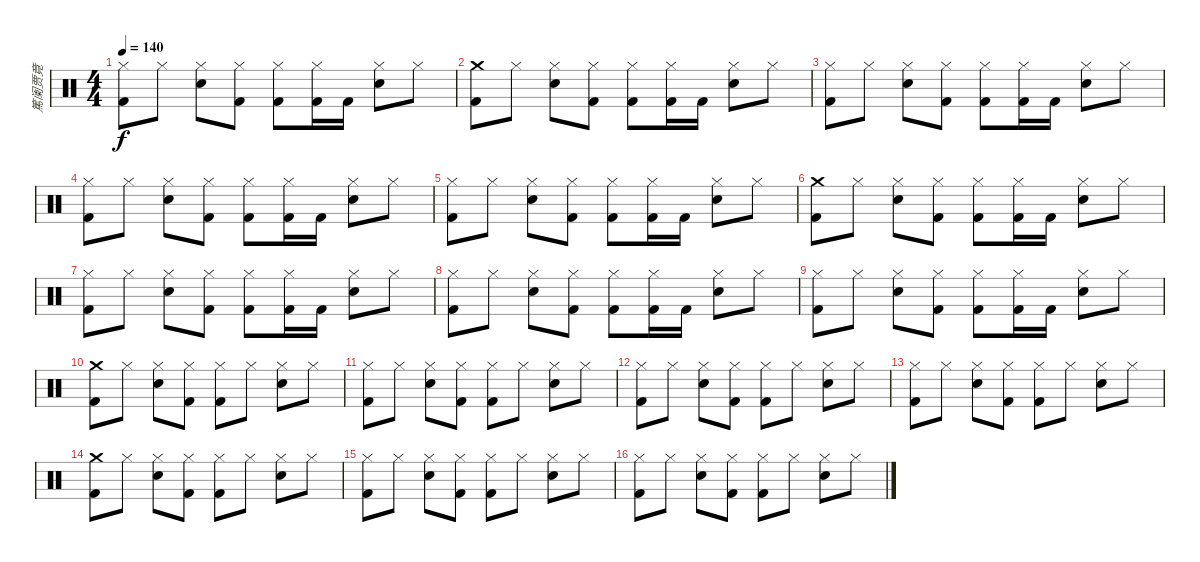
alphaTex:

\track ("篤阑贾竟" "篤阑贾竟") {instrument percussion}
\staff {score}
\articulation defaults
\ts (4 4)
\tempo 140
\clef neutral
\ks c
("Hi-Hat (closed)" "Kick (hit) 2").8{dy f} "Hi-Hat (closed)".8 ("Hi-Hat (closed)" "Snare (hit) 2").8 ("Hi-Hat (closed)" "Kick (hit) 2").8 ("Hi-Hat (closed)" "Kick (hit) 2").8 ("Hi-Hat (closed)" "Kick (hit) 2").16 "Kick (hit) 2".16 ("Hi-Hat (closed)" "Snare (hit) 2").8 "Hi-Hat (closed)".8 |
("Crash medium (hit)" "Kick (hit) 2").8 "Hi-Hat (closed)".8 ("Hi-Hat (closed)" "Snare (hit) 2").8 ("Hi-Hat (closed)" "Kick (hit) 2").8 ("Hi-Hat (closed)" "Kick (hit) 2").8 ("Hi-Hat (closed)" "Kick (hit) 2").16 "Kick (hit) 2".16 ("Hi-Hat (closed)" "Snare (hit) 2").8 "Hi-Hat (closed)".8 |
("Hi-Hat (closed)" "Kick (hit) 2").8 "Hi-Hat (closed)".8 ("Hi-Hat (closed)" "Snare (hit) 2").8 ("Hi-Hat (closed)" "Kick (hit) 2").8 ("Hi-Hat (closed)" "Kick (hit) 2").8 ("Hi-Hat (closed)" "Kick (hit) 2").16 "Kick (hit) 2".16 ("Hi-Hat (closed)" "Snare (hit) 2").8 "Hi-Hat (closed)".8 |
("Hi-Hat (closed)" "Kick (hit) 2").8 "Hi-Hat (closed)".8 ("Hi-Hat (closed)" "Snare (hit) 2").8 ("Hi-Hat (closed)" "Kick (hit) 2").8 ("Hi-Hat (closed)" "Kick (hit) 2").8 ("Hi-Hat (closed)" "Kick (hit) 2").16 "Kick (hit) 2".16 ("Hi-Hat (closed)" "Snare (hit) 2").8 "Hi-Hat (closed)".8 |
("Hi-Hat (closed)" "Kick (hit) 2").8 "Hi-Hat (closed)".8 ("Hi-Hat (closed)" "Snare (hit) 2").8 ("Hi-Hat (closed)" "Kick (hit) 2").8 ("Hi-Hat (closed)" "Kick (hit) 2").8 ("Hi-Hat (closed)" "Kick (hit) 2").16 "Kick (hit) 2".16 ("Hi-Hat (closed)" "Snare (hit) 2").8 "Hi-Hat (closed)".8 |
("Crash medium (hit)" "Kick (hit) 2").8 "Hi-Hat (closed)".8 ("Hi-Hat (closed)" "Snare (hit) 2").8 ("Hi-Hat (closed)" "Kick (hit) 2").8 ("Hi-Hat (closed)" "Kick (hit) 2").8 ("Hi-Hat (closed)" "Kick (hit) 2").16 "Kick (hit) 2".16 ("Hi-Hat (closed)" "Snare (hit) 2").8 "Hi-Hat (closed)".8 |
("Hi-Hat (closed)" "Kick (hit) 2").8 "Hi-Hat (closed)".8 ("Hi-Hat (closed)" "Snare (hit) 2").8 ("Hi-Hat (closed)" "Kick (hit) 2").8 ("Hi-Hat (closed)" "Kick (hit) 2").8 ("Hi-Hat (closed)" "Kick (hit) 2").16 "Kick (hit) 2".16 ("Hi-Hat (closed)" "Snare (hit) 2").8 "Hi-Hat (closed)".8 |
("Hi-Hat (closed)" "Kick (hit) 2").8 "Hi-Hat (closed)".8 ("Hi-Hat (closed)" "Snare (hit) 2").8 ("Hi-Hat (closed)" "Kick (hit) 2").8 ("Hi-Hat (closed)" "Kick (hit) 2").8 ("Hi-Hat (closed)" "Kick (hit) 2").16 "Kick (hit) 2".16 ("Hi-Hat (closed)" "Snare (hit) 2").8 "Hi-Hat (closed)".8 |
("Hi-Hat (closed)" "Kick (hit) 2").8 "Hi-Hat (closed)".8 ("Hi-Hat (closed)" "Snare (hit) 2").8 ("Hi-Hat (closed)" "Kick (hit) 2").8 ("Hi-Hat (closed)" "Kick (hit) 2").8 ("Hi-Hat (closed)" "Kick (hit) 2").16 "Kick (hit) 2".16 ("Hi-Hat (closed)" "Snare (hit) 2").8 "Hi-Hat (closed)".8 |
("Crash medium (hit)" "Kick (hit) 2").8 "Hi-Hat (closed)".8 ("Hi-Hat (closed)" "Snare (hit) 2").8 ("Hi-Hat (closed)" "Kick (hit) 2").8 ("Hi-Hat (closed)" "Kick (hit) 2").8 "Hi-Hat (closed)".8 ("Hi-Hat (closed)" "Snare (hit) 2").8 "Hi-Hat (closed)".8 |
("Hi-Hat (closed)" "Kick (hit) 2").8 "Hi-Hat (closed)".8 ("Hi-Hat (closed)" "Snare (hit) 2").8 ("Hi-Hat (closed)" "Kick (hit) 2").8 ("Hi-Hat (closed)" "Kick (hit) 2").8 "Hi-Hat (closed)".8 ("Hi-Hat (closed)" "Snare (hit) 2").8 "Hi-Hat (closed)".8 |
("Hi-Hat (closed)" "Kick (hit) 2").8 "Hi-Hat (closed)".8 ("Hi-Hat (closed)" "Snare (hit) 2").8 ("Hi-Hat (closed)" "Kick (hit) 2").8 ("Hi-Hat (closed)" "Kick (hit) 2").8 "Hi-Hat (closed)".8 ("Hi-Hat (closed)" "Snare (hit) 2").8 "Hi-Hat (closed)".8 |
("Hi-Hat (closed)" "Kick (hit) 2").8 "Hi-Hat (closed)".8 ("Hi-Hat (closed)" "Snare (hit) 2").8 ("Hi-Hat (closed)" "Kick (hit) 2").8 ("Hi-Hat (closed)" "Kick (hit) 2").8 "Hi-Hat (closed)".8 ("Hi-Hat (closed)" "Snare (hit) 2").8 "Hi-Hat (closed)".8 |
("Crash medium (hit)" "Kick (hit) 2").8 "Hi-Hat (closed)".8 ("Hi-Hat (closed)" "Snare (hit) 2").8 ("Hi-Hat (closed)" "Kick (hit) 2").8 ("Hi-Hat (closed)" "Kick (hit) 2").8 "Hi-Hat (closed)".8 ("Hi-Hat (closed)" "Snare (hit) 2").8 "Hi-Hat (closed)".8 |
("Hi-Hat (closed)" "Kick (hit) 2").8 "Hi-Hat (closed)".8 ("Hi-Hat (closed)" "Snare (hit) 2").8 ("Hi-Hat (closed)" "Kick (hit) 2").8 ("Hi-Hat (closed)" "Kick (hit) 2").8 "Hi-Hat (closed)".8 ("Hi-Hat (closed)" "Snare (hit) 2").8 "Hi-Hat (closed)".8 |
("Hi-Hat (closed)" "Kick (hit) 2").8 "Hi-Hat (closed)".8 ("Hi-Hat (closed)" "Snare (hit) 2").8 ("Hi-Hat (closed)" "Kick (hit) 2").8 ("Hi-Hat (closed)" "Kick (hit) 2").8 "Hi-Hat (closed)".8 ("Hi-Hat (closed)" "Snare (hit) 2").8 "Hi-Hat (closed)".8
